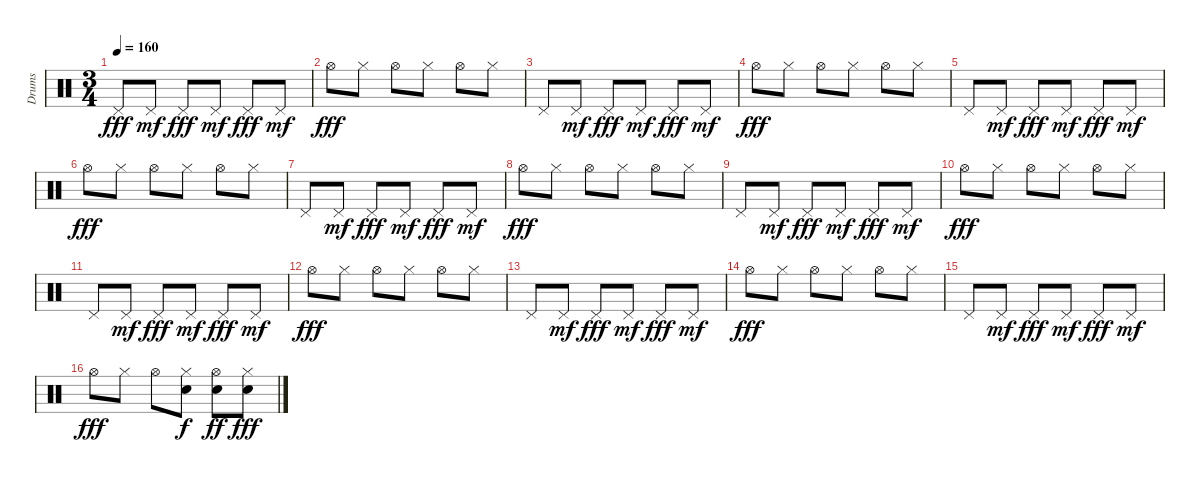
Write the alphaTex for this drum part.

\track ("Drums" "Drums") {instrument percussion}
\staff {score}
\articulation defaults
\ts (3 4)
\tempo 160
\clef neutral
\ks c "Pedal Hi-Hat (hit)".8{dy fff} "Pedal Hi-Hat (hit)".8{dy mf} "Pedal Hi-Hat (hit)".8{dy fff} "Pedal Hi-Hat (hit)".8{dy mf} "Pedal Hi-Hat (hit)".8{dy fff} "Pedal Hi-Hat (hit)".8{dy mf}
|
"Hi-Hat (open)".8{dy fff} "Hi-Hat (closed)".8 "Hi-Hat (open)".8 "Hi-Hat (closed)".8 "Hi-Hat (open)".8 "Hi-Hat (closed)".8 |
"Pedal Hi-Hat (hit)".8 "Pedal Hi-Hat (hit)".8{dy mf} "Pedal Hi-Hat (hit)".8{dy fff} "Pedal Hi-Hat (hit)".8{dy mf} "Pedal Hi-Hat (hit)".8{dy fff} "Pedal Hi-Hat (hit)".8{dy mf} |
"Hi-Hat (open)".8{dy fff} "Hi-Hat (closed)".8 "Hi-Hat (open)".8 "Hi-Hat (closed)".8 "Hi-Hat (open)".8 "Hi-Hat (closed)".8 |
"Pedal Hi-Hat (hit)".8 "Pedal Hi-Hat (hit)".8{dy mf} "Pedal Hi-Hat (hit)".8{dy fff} "Pedal Hi-Hat (hit)".8{dy mf} "Pedal Hi-Hat (hit)".8{dy fff} "Pedal Hi-Hat (hit)".8{dy mf} |
"Hi-Hat (open)".8{dy fff} "Hi-Hat (closed)".8 "Hi-Hat (open)".8 "Hi-Hat (closed)".8 "Hi-Hat (open)".8 "Hi-Hat (closed)".8 |
"Pedal Hi-Hat (hit)".8 "Pedal Hi-Hat (hit)".8{dy mf} "Pedal Hi-Hat (hit)".8{dy fff} "Pedal Hi-Hat (hit)".8{dy mf} "Pedal Hi-Hat (hit)".8{dy fff} "Pedal Hi-Hat (hit)".8{dy mf} |
"Hi-Hat (open)".8{dy fff} "Hi-Hat (closed)".8 "Hi-Hat (open)".8 "Hi-Hat (closed)".8 "Hi-Hat (open)".8 "Hi-Hat (closed)".8 |
"Pedal Hi-Hat (hit)".8 "Pedal Hi-Hat (hit)".8{dy mf} "Pedal Hi-Hat (hit)".8{dy fff} "Pedal Hi-Hat (hit)".8{dy mf} "Pedal Hi-Hat (hit)".8{dy fff} "Pedal Hi-Hat (hit)".8{dy mf} |
"Hi-Hat (open)".8{dy fff} "Hi-Hat (closed)".8 "Hi-Hat (open)".8 "Hi-Hat (closed)".8 "Hi-Hat (open)".8 "Hi-Hat (closed)".8 |
"Pedal Hi-Hat (hit)".8 "Pedal Hi-Hat (hit)".8{dy mf} "Pedal Hi-Hat (hit)".8{dy fff} "Pedal Hi-Hat (hit)".8{dy mf} "Pedal Hi-Hat (hit)".8{dy fff} "Pedal Hi-Hat (hit)".8{dy mf} |
"Hi-Hat (open)".8{dy fff} "Hi-Hat (closed)".8 "Hi-Hat (open)".8 "Hi-Hat (closed)".8 "Hi-Hat (open)".8 "Hi-Hat (closed)".8 |
"Pedal Hi-Hat (hit)".8 "Pedal Hi-Hat (hit)".8{dy mf} "Pedal Hi-Hat (hit)".8{dy fff} "Pedal Hi-Hat (hit)".8{dy mf} "Pedal Hi-Hat (hit)".8{dy fff} "Pedal Hi-Hat (hit)".8{dy mf} |
"Hi-Hat (open)".8{dy fff} "Hi-Hat (closed)".8 "Hi-Hat (open)".8 "Hi-Hat (closed)".8 "Hi-Hat (open)".8 "Hi-Hat (closed)".8 |
"Pedal Hi-Hat (hit)".8 "Pedal Hi-Hat (hit)".8{dy mf} "Pedal Hi-Hat (hit)".8{dy fff} "Pedal Hi-Hat (hit)".8{dy mf} "Pedal Hi-Hat (hit)".8{dy fff} "Pedal Hi-Hat (hit)".8{dy mf} |
"Hi-Hat (open)".8{dy fff} "Hi-Hat (closed)".8 "Hi-Hat (open)".8 ("Hi-Hat (closed)" "Electric Snare (hit)").8{dy f} ("Hi-Hat (open)" "Electric Snare (hit)").8{dy ff} ("Hi-Hat (closed)" "Electric Snare (hit)").8{dy fff}
